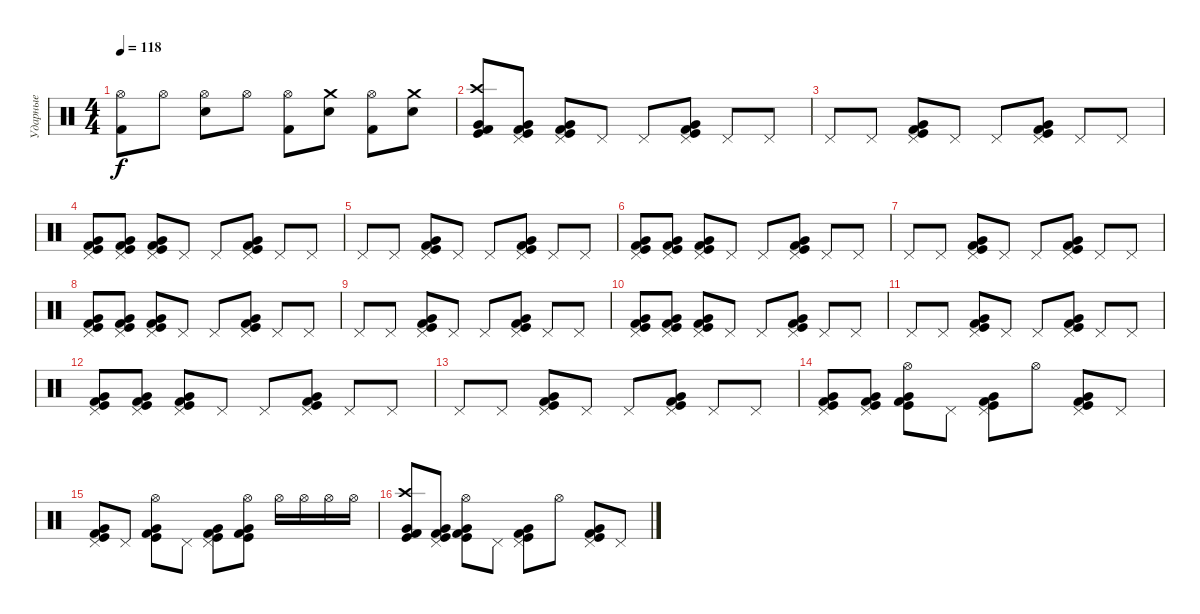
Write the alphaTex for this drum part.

\track ("Ударные" "Ударные") {instrument percussion}
\staff {score}
\articulation defaults
\ts (4 4)
\tempo 118
\clef neutral
\ks c
("Hi-Hat (open)" "Kick (hit) 2").8{dy f} "Hi-Hat (open)".8 ("Hi-Hat (open)" "Snare (hit) 2").8 "Hi-Hat (open)".8 ("Hi-Hat (open)" "Kick (hit) 2").8 ("Crash medium (hit)" "Snare (hit) 2").8 ("Hi-Hat (open)" "Kick (hit) 2").8 ("Crash medium (hit)" "Snare (hit) 2").8 |
("Crash high (hit)" "Very Low Tom (hit)" "Kick (hit) 2" "Kick (hit)").8 ("Pedal Hi-Hat (hit)" "Very Low Tom (hit)" "Kick (hit) 2" "Kick (hit)").8 ("Pedal Hi-Hat (hit)" "Very Low Tom (hit)" "Kick (hit) 2" "Kick (hit)").8 "Pedal Hi-Hat (hit)".8 "Pedal Hi-Hat (hit)".8 ("Pedal Hi-Hat (hit)" "Very Low Tom (hit)" "Kick (hit) 2" "Kick (hit)").8 "Pedal Hi-Hat (hit)".8 "Pedal Hi-Hat (hit)".8 |
"Pedal Hi-Hat (hit)".8 "Pedal Hi-Hat (hit)".8 ("Pedal Hi-Hat (hit)" "Very Low Tom (hit)" "Kick (hit) 2" "Kick (hit)").8 "Pedal Hi-Hat (hit)".8 "Pedal Hi-Hat (hit)".8 ("Pedal Hi-Hat (hit)" "Very Low Tom (hit)" "Kick (hit) 2" "Kick (hit)").8 "Pedal Hi-Hat (hit)".8 "Pedal Hi-Hat (hit)".8 |
("Pedal Hi-Hat (hit)" "Very Low Tom (hit)" "Kick (hit) 2" "Kick (hit)").8 ("Pedal Hi-Hat (hit)" "Very Low Tom (hit)" "Kick (hit) 2" "Kick (hit)").8 ("Pedal Hi-Hat (hit)" "Very Low Tom (hit)" "Kick (hit) 2" "Kick (hit)").8 "Pedal Hi-Hat (hit)".8 "Pedal Hi-Hat (hit)".8 ("Pedal Hi-Hat (hit)" "Very Low Tom (hit)" "Kick (hit) 2" "Kick (hit)").8 "Pedal Hi-Hat (hit)".8 "Pedal Hi-Hat (hit)".8 |
"Pedal Hi-Hat (hit)".8 "Pedal Hi-Hat (hit)".8 ("Pedal Hi-Hat (hit)" "Very Low Tom (hit)" "Kick (hit) 2" "Kick (hit)").8 "Pedal Hi-Hat (hit)".8 "Pedal Hi-Hat (hit)".8 ("Pedal Hi-Hat (hit)" "Very Low Tom (hit)" "Kick (hit) 2" "Kick (hit)").8 "Pedal Hi-Hat (hit)".8 "Pedal Hi-Hat (hit)".8 |
("Pedal Hi-Hat (hit)" "Very Low Tom (hit)" "Kick (hit) 2" "Kick (hit)").8 ("Pedal Hi-Hat (hit)" "Very Low Tom (hit)" "Kick (hit) 2" "Kick (hit)").8 ("Pedal Hi-Hat (hit)" "Very Low Tom (hit)" "Kick (hit) 2" "Kick (hit)").8 "Pedal Hi-Hat (hit)".8 "Pedal Hi-Hat (hit)".8 ("Pedal Hi-Hat (hit)" "Very Low Tom (hit)" "Kick (hit) 2" "Kick (hit)").8 "Pedal Hi-Hat (hit)".8 "Pedal Hi-Hat (hit)".8 |
"Pedal Hi-Hat (hit)".8 "Pedal Hi-Hat (hit)".8 ("Pedal Hi-Hat (hit)" "Very Low Tom (hit)" "Kick (hit) 2" "Kick (hit)").8 "Pedal Hi-Hat (hit)".8 "Pedal Hi-Hat (hit)".8 ("Pedal Hi-Hat (hit)" "Very Low Tom (hit)" "Kick (hit) 2" "Kick (hit)").8 "Pedal Hi-Hat (hit)".8 "Pedal Hi-Hat (hit)".8 |
("Pedal Hi-Hat (hit)" "Very Low Tom (hit)" "Kick (hit) 2" "Kick (hit)").8 ("Pedal Hi-Hat (hit)" "Very Low Tom (hit)" "Kick (hit) 2" "Kick (hit)").8 ("Pedal Hi-Hat (hit)" "Very Low Tom (hit)" "Kick (hit) 2" "Kick (hit)").8 "Pedal Hi-Hat (hit)".8 "Pedal Hi-Hat (hit)".8 ("Pedal Hi-Hat (hit)" "Very Low Tom (hit)" "Kick (hit) 2" "Kick (hit)").8 "Pedal Hi-Hat (hit)".8 "Pedal Hi-Hat (hit)".8 |
"Pedal Hi-Hat (hit)".8 "Pedal Hi-Hat (hit)".8 ("Pedal Hi-Hat (hit)" "Very Low Tom (hit)" "Kick (hit) 2" "Kick (hit)").8 "Pedal Hi-Hat (hit)".8 "Pedal Hi-Hat (hit)".8 ("Pedal Hi-Hat (hit)" "Very Low Tom (hit)" "Kick (hit) 2" "Kick (hit)").8 "Pedal Hi-Hat (hit)".8 "Pedal Hi-Hat (hit)".8 |
("Pedal Hi-Hat (hit)" "Very Low Tom (hit)" "Kick (hit) 2" "Kick (hit)").8 ("Pedal Hi-Hat (hit)" "Very Low Tom (hit)" "Kick (hit) 2" "Kick (hit)").8 ("Pedal Hi-Hat (hit)" "Very Low Tom (hit)" "Kick (hit) 2" "Kick (hit)").8 "Pedal Hi-Hat (hit)".8 "Pedal Hi-Hat (hit)".8 ("Pedal Hi-Hat (hit)" "Very Low Tom (hit)" "Kick (hit) 2" "Kick (hit)").8 "Pedal Hi-Hat (hit)".8 "Pedal Hi-Hat (hit)".8 |
"Pedal Hi-Hat (hit)".8 "Pedal Hi-Hat (hit)".8 ("Pedal Hi-Hat (hit)" "Very Low Tom (hit)" "Kick (hit) 2" "Kick (hit)").8 "Pedal Hi-Hat (hit)".8 "Pedal Hi-Hat (hit)".8 ("Pedal Hi-Hat (hit)" "Very Low Tom (hit)" "Kick (hit) 2" "Kick (hit)").8 "Pedal Hi-Hat (hit)".8 "Pedal Hi-Hat (hit)".8 |
("Pedal Hi-Hat (hit)" "Very Low Tom (hit)" "Kick (hit) 2" "Kick (hit)").8 ("Pedal Hi-Hat (hit)" "Very Low Tom (hit)" "Kick (hit) 2" "Kick (hit)").8 ("Pedal Hi-Hat (hit)" "Very Low Tom (hit)" "Kick (hit) 2" "Kick (hit)").8 "Pedal Hi-Hat (hit)".8 "Pedal Hi-Hat (hit)".8 ("Pedal Hi-Hat (hit)" "Very Low Tom (hit)" "Kick (hit) 2" "Kick (hit)").8 "Pedal Hi-Hat (hit)".8 "Pedal Hi-Hat (hit)".8 |
"Pedal Hi-Hat (hit)".8 "Pedal Hi-Hat (hit)".8 ("Pedal Hi-Hat (hit)" "Very Low Tom (hit)" "Kick (hit) 2" "Kick (hit)").8 "Pedal Hi-Hat (hit)".8 "Pedal Hi-Hat (hit)".8 ("Pedal Hi-Hat (hit)" "Very Low Tom (hit)" "Kick (hit) 2" "Kick (hit)").8 "Pedal Hi-Hat (hit)".8 "Pedal Hi-Hat (hit)".8 |
("Pedal Hi-Hat (hit)" "Very Low Tom (hit)" "Kick (hit) 2" "Kick (hit)").8 ("Pedal Hi-Hat (hit)" "Very Low Tom (hit)" "Kick (hit) 2" "Kick (hit)").8 ("Hi-Hat (open)" "Very Low Tom (hit)" "Kick (hit) 2" "Kick (hit)").8 "Pedal Hi-Hat (hit)".8 ("Pedal Hi-Hat (hit)" "Very Low Tom (hit)" "Kick (hit) 2" "Kick (hit)").8 "Hi-Hat (open)".8 ("Pedal Hi-Hat (hit)" "Very Low Tom (hit)" "Kick (hit) 2" "Kick (hit)").8 "Pedal Hi-Hat (hit)".8 |
("Pedal Hi-Hat (hit)" "Very Low Tom (hit)" "Kick (hit) 2" "Kick (hit)").8 "Pedal Hi-Hat (hit)".8 ("Hi-Hat (open)" "Very Low Tom (hit)" "Kick (hit) 2" "Kick (hit)").8 "Pedal Hi-Hat (hit)".8 ("Pedal Hi-Hat (hit)" "Very Low Tom (hit)" "Kick (hit) 2" "Kick (hit)").8 ("Hi-Hat (open)" "Very Low Tom (hit)" "Kick (hit) 2" "Kick (hit)").8 "Hi-Hat (open)".16 "Hi-Hat (open)".16 "Hi-Hat (open)".16 "Hi-Hat (open)".16 |
("Crash high (hit)" "Very Low Tom (hit)" "Kick (hit) 2" "Kick (hit)").8 ("Pedal Hi-Hat (hit)" "Very Low Tom (hit)" "Kick (hit) 2" "Kick (hit)").8 ("Hi-Hat (open)" "Very Low Tom (hit)" "Kick (hit) 2" "Kick (hit)").8 "Pedal Hi-Hat (hit)".8 ("Pedal Hi-Hat (hit)" "Very Low Tom (hit)" "Kick (hit) 2" "Kick (hit)").8 "Hi-Hat (open)".8 ("Pedal Hi-Hat (hit)" "Very Low Tom (hit)" "Kick (hit) 2" "Kick (hit)").8 "Pedal Hi-Hat (hit)".8
